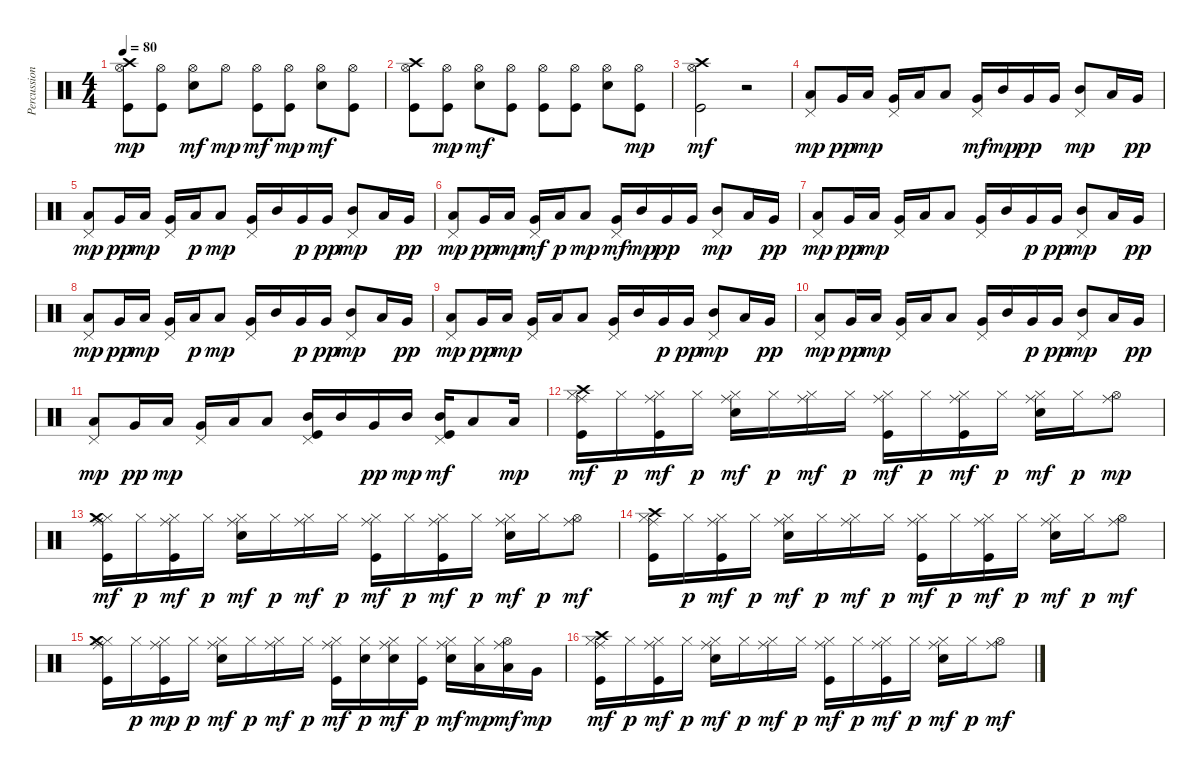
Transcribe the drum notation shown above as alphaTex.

\track ("Percussioni" "Percussion") {instrument percussion}
\staff {score}
\articulation defaults
\ts (4 4)
\tempo 80
\clef neutral
\ks c
("Kick (hit)" "Hi-Hat (open)" "Crash high (hit)").8{dy mp} ("Kick (hit)" "Hi-Hat (open)").8 ("Snare (hit) 2" "Hi-Hat (open)").8{dy mf} "Hi-Hat (open)".8{dy mp} ("Kick (hit)" "Hi-Hat (open)").8{dy mf} ("Kick (hit)" "Hi-Hat (open)").8{dy mp} ("Snare (hit) 2" "Hi-Hat (open)").8{dy mf} ("Kick (hit)" "Hi-Hat (open)").8 |
("Kick (hit)" "Hi-Hat (open)" "Crash high (hit)").8 ("Kick (hit)" "Hi-Hat (open)").8{dy mp} ("Snare (hit) 2" "Hi-Hat (open)").8{dy mf} ("Kick (hit)" "Hi-Hat (open)").8 ("Kick (hit)" "Hi-Hat (open)").8 ("Kick (hit)" "Hi-Hat (open)").8 ("Snare (hit) 2" "Hi-Hat (open)").8 ("Kick (hit)" "Hi-Hat (open)").8{dy mp} |
("Kick (hit)" "Hi-Hat (open)" "Crash high (hit)").2{dy mf} r.2 |
("Pedal Hi-Hat (hit)" "Low Tom (hit)").8{dy mp} "Very Low Tom (hit)".16{dy pp} "Low Tom (hit)".16{dy mp} ("Very Low Tom (hit)" "Pedal Hi-Hat (hit)").16 "Low Tom (hit)".16 "Low Tom (hit)".8 ("Very Low Tom (hit)" "Pedal Hi-Hat (hit)").16{dy mf} "Mid Tom (hit)".16{dy mp} "Very Low Tom (hit)".16{dy pp} "Very Low Tom (hit)".16 ("Pedal Hi-Hat (hit)" "Mid Tom (hit)").8{dy mp} "Low Tom (hit)".16 "Very Low Tom (hit)".16{dy pp} |
("Pedal Hi-Hat (hit)" "Low Tom (hit)").8{dy mp} "Very Low Tom (hit)".16{dy pp} "Low Tom (hit)".16{dy mp} ("Very Low Tom (hit)" "Pedal Hi-Hat (hit)").16 "Low Tom (hit)".16{dy p} "Low Tom (hit)".8{dy mp} ("Very Low Tom (hit)" "Pedal Hi-Hat (hit)").16 "Mid Tom (hit)".16 "Very Low Tom (hit)".16{dy p} "Very Low Tom (hit)".16{dy pp} ("Pedal Hi-Hat (hit)" "Mid Tom (hit)").8{dy mp} "Low Tom (hit)".16 "Very Low Tom (hit)".16{dy pp} |
("Pedal Hi-Hat (hit)" "Low Tom (hit)").8{dy mp} "Very Low Tom (hit)".16{dy pp} "Low Tom (hit)".16{dy mp} ("Very Low Tom (hit)" "Pedal Hi-Hat (hit)").16{dy mf} "Low Tom (hit)".16{dy p} "Low Tom (hit)".8{dy mp} ("Very Low Tom (hit)" "Pedal Hi-Hat (hit)").16{dy mf} "Mid Tom (hit)".16{dy mp} "Very Low Tom (hit)".16{dy pp} "Very Low Tom (hit)".16 ("Pedal Hi-Hat (hit)" "Mid Tom (hit)").8{dy mp} "Low Tom (hit)".16 "Very Low Tom (hit)".16{dy pp} |
("Pedal Hi-Hat (hit)" "Low Tom (hit)").8{dy mp} "Very Low Tom (hit)".16{dy pp} "Low Tom (hit)".16{dy mp} ("Very Low Tom (hit)" "Pedal Hi-Hat (hit)").16 "Low Tom (hit)".16 "Low Tom (hit)".8 ("Very Low Tom (hit)" "Pedal Hi-Hat (hit)").16 "Mid Tom (hit)".16 "Very Low Tom (hit)".16{dy p} "Very Low Tom (hit)".16{dy pp} ("Pedal Hi-Hat (hit)" "Mid Tom (hit)").8{dy mp} "Low Tom (hit)".16 "Very Low Tom (hit)".16{dy pp} |
("Pedal Hi-Hat (hit)" "Low Tom (hit)").8{dy mp} "Very Low Tom (hit)".16{dy pp} "Low Tom (hit)".16{dy mp} ("Very Low Tom (hit)" "Pedal Hi-Hat (hit)").16 "Low Tom (hit)".16{dy p} "Low Tom (hit)".8{dy mp} ("Very Low Tom (hit)" "Pedal Hi-Hat (hit)").16 "Mid Tom (hit)".16 "Very Low Tom (hit)".16{dy p} "Very Low Tom (hit)".16{dy pp} ("Pedal Hi-Hat (hit)" "Mid Tom (hit)").8{dy mp} "Low Tom (hit)".16 "Very Low Tom (hit)".16{dy pp} |
("Pedal Hi-Hat (hit)" "Low Tom (hit)").8{dy mp} "Very Low Tom (hit)".16{dy pp} "Low Tom (hit)".16{dy mp} ("Very Low Tom (hit)" "Pedal Hi-Hat (hit)").16 "Low Tom (hit)".16 "Low Tom (hit)".8 ("Very Low Tom (hit)" "Pedal Hi-Hat (hit)").16 "Mid Tom (hit)".16 "Very Low Tom (hit)".16{dy p} "Very Low Tom (hit)".16{dy pp} ("Pedal Hi-Hat (hit)" "Mid Tom (hit)").8{dy mp} "Low Tom (hit)".16 "Very Low Tom (hit)".16{dy pp} |
("Pedal Hi-Hat (hit)" "Low Tom (hit)").8{dy mp} "Very Low Tom (hit)".16{dy pp} "Low Tom (hit)".16{dy mp} ("Very Low Tom (hit)" "Pedal Hi-Hat (hit)").16 "Low Tom (hit)".16 "Low Tom (hit)".8 ("Very Low Tom (hit)" "Pedal Hi-Hat (hit)").16 "Mid Tom (hit)".16 "Very Low Tom (hit)".16{dy p} "Very Low Tom (hit)".16{dy pp} ("Pedal Hi-Hat (hit)" "Mid Tom (hit)").8{dy mp} "Low Tom (hit)".16 "Very Low Tom (hit)".16{dy pp} |
("Pedal Hi-Hat (hit)" "Low Tom (hit)").8{dy mp} "Very Low Tom (hit)".16{dy pp} "Low Tom (hit)".16{dy mp} ("Very Low Tom (hit)" "Pedal Hi-Hat (hit)").16 "Low Tom (hit)".16 "Low Tom (hit)".8 ("Mid Tom (hit)" "Kick (hit)" "Pedal Hi-Hat (hit)").16 "Mid Tom (hit)".16 "Very Low Tom (hit)".16{dy pp} "Mid Tom (hit)".16{dy mp} ("Mid Tom (hit)" "Kick (hit)" "Pedal Hi-Hat (hit)").16{dy mf} "Low Tom (hit)".8 "Low Tom (hit)".16{dy mp} |
("Kick (hit)" "Hi-Hat (closed)" "Crash high (hit)" "Ride (middle)").16{dy mf} "Hi-Hat (closed)".16{dy p} ("Kick (hit)" "Hi-Hat (closed)" "Ride (middle)").16{dy mf} "Hi-Hat (closed)".16{dy p} ("Snare (hit) 2" "Hi-Hat (closed)" "Ride (middle)").16{dy mf} "Hi-Hat (closed)".16{dy p} ("Hi-Hat (closed)" "Ride (middle)").16{dy mf} "Hi-Hat (closed)".16{dy p} ("Kick (hit)" "Hi-Hat (closed)" "Ride (middle)").16{dy mf} "Hi-Hat (closed)".16{dy p} ("Kick (hit)" "Hi-Hat (closed)" "Ride (middle)").16{dy mf} "Hi-Hat (closed)".16{dy p} ("Snare (hit) 2" "Hi-Hat (closed)" "Ride (middle)").16{dy mf} "Hi-Hat (closed)".16{dy p} ("Hi-Hat (open)" "Ride (middle)").8{dy mp} |
("Kick (hit)" "Hi-Hat (closed)" "Ride (middle)" "Crash medium (hit)").16{dy mf} "Hi-Hat (closed)".16{dy p} ("Kick (hit)" "Hi-Hat (closed)" "Ride (middle)").16{dy mf} "Hi-Hat (closed)".16{dy p} ("Snare (hit) 2" "Hi-Hat (closed)" "Ride (middle)").16{dy mf} "Hi-Hat (closed)".16{dy p} ("Hi-Hat (closed)" "Ride (middle)").16{dy mf} "Hi-Hat (closed)".16{dy p} ("Kick (hit)" "Hi-Hat (closed)" "Ride (middle)").16{dy mf} "Hi-Hat (closed)".16{dy p} ("Kick (hit)" "Hi-Hat (closed)" "Ride (middle)").16{dy mf} "Hi-Hat (closed)".16{dy p} ("Snare (hit) 2" "Hi-Hat (closed)" "Ride (middle)").16{dy mf} "Hi-Hat (closed)".16{dy p} ("Hi-Hat (open)" "Ride (middle)").8{dy mf} |
("Kick (hit)" "Hi-Hat (closed)" "Crash high (hit)" "Ride (middle)").16 "Hi-Hat (closed)".16{dy p} ("Kick (hit)" "Hi-Hat (closed)" "Ride (middle)").16{dy mf} "Hi-Hat (closed)".16{dy p} ("Snare (hit) 2" "Hi-Hat (closed)" "Ride (middle)").16{dy mf} "Hi-Hat (closed)".16{dy p} ("Hi-Hat (closed)" "Ride (middle)").16{dy mf} "Hi-Hat (closed)".16{dy p} ("Kick (hit)" "Hi-Hat (closed)" "Ride (middle)").16{dy mf} "Hi-Hat (closed)".16{dy p} ("Kick (hit)" "Hi-Hat (closed)" "Ride (middle)").16{dy mf} "Hi-Hat (closed)".16{dy p} ("Snare (hit) 2" "Hi-Hat (closed)" "Ride (middle)").16{dy mf} "Hi-Hat (closed)".16{dy p} ("Hi-Hat (open)" "Ride (middle)").8{dy mf} |
("Kick (hit)" "Hi-Hat (closed)" "Ride (middle)" "Crash medium (hit)").16 "Hi-Hat (closed)".16{dy p} ("Kick (hit)" "Hi-Hat (closed)" "Ride (middle)").16{dy mp} "Hi-Hat (closed)".16{dy p} ("Snare (hit) 2" "Hi-Hat (closed)" "Ride (middle)").16{dy mf} "Hi-Hat (closed)".16{dy p} ("Hi-Hat (closed)" "Ride (middle)").16{dy mf} "Hi-Hat (closed)".16{dy p} ("Kick (hit)" "Hi-Hat (closed)" "Ride (middle)").16{dy mf} ("Snare (hit) 2" "Hi-Hat (closed)").16{dy p} ("Snare (hit) 2" "Hi-Hat (closed)" "Ride (middle)").16{dy mf} ("Kick (hit)" "Hi-Hat (closed)").16{dy p} ("Snare (hit) 2" "Hi-Hat (closed)" "Ride (middle)").16{dy mf} ("Hi-Hat (closed)" "Low Tom (hit)").16{dy mp} ("Low Tom (hit)" "Hi-Hat (open)" "Ride (middle)").16{dy mf} "Very Low Tom (hit)".16{dy mp} |
("Kick (hit)" "Hi-Hat (closed)" "Crash high (hit)" "Ride (middle)").16{dy mf} "Hi-Hat (closed)".16{dy p} ("Kick (hit)" "Hi-Hat (closed)" "Ride (middle)").16{dy mf} "Hi-Hat (closed)".16{dy p} ("Snare (hit) 2" "Hi-Hat (closed)" "Ride (middle)").16{dy mf} "Hi-Hat (closed)".16{dy p} ("Hi-Hat (closed)" "Ride (middle)").16{dy mf} "Hi-Hat (closed)".16{dy p} ("Kick (hit)" "Hi-Hat (closed)" "Ride (middle)").16{dy mf} "Hi-Hat (closed)".16{dy p} ("Kick (hit)" "Hi-Hat (closed)" "Ride (middle)").16{dy mf} "Hi-Hat (closed)".16{dy p} ("Snare (hit) 2" "Hi-Hat (closed)" "Ride (middle)").16{dy mf} "Hi-Hat (closed)".16{dy p} ("Hi-Hat (open)" "Ride (middle)").8{dy mf}
